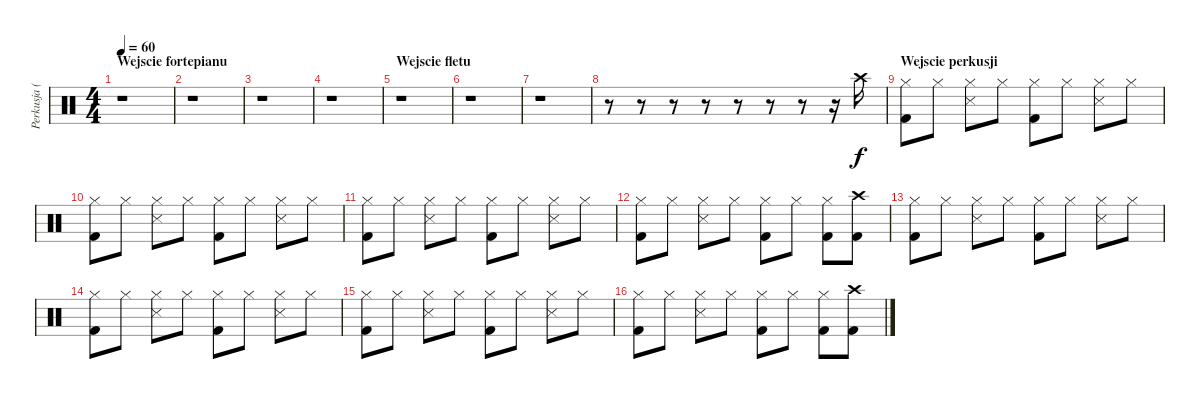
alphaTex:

\track ("Perkusja (Piejo)" "Perkusja (") {instrument percussion}
\staff {score}
\articulation defaults
\ts (4 4)
\section ("" "Wejscie fortepianu")
\tempo 60
\clef neutral
\ks c
r.1{dy f} |
r.1 |
r.1 |
r.1 |
\section ("" "Wejscie fletu")
r.1 |
r.1 |
r.1 |
r.8 r.8 r.8 r.8 r.8 r.8 r.8 r.16 "Crash high (hit)".16 |
\section ("" "Wejscie perkusji")
("Kick (hit) 2" "Hi-Hat (closed)").8 "Hi-Hat (closed)".8 ("Hi-Hat (closed)" "Snare (side stick) 3").8 "Hi-Hat (closed)".8 ("Hi-Hat (closed)" "Kick (hit) 2").8 "Hi-Hat (closed)".8 ("Hi-Hat (closed)" "Snare (side stick) 3").8 "Hi-Hat (closed)".8 |
("Kick (hit) 2" "Hi-Hat (closed)").8 "Hi-Hat (closed)".8 ("Hi-Hat (closed)" "Snare (side stick) 3").8 "Hi-Hat (closed)".8 ("Hi-Hat (closed)" "Kick (hit) 2").8 "Hi-Hat (closed)".8 ("Hi-Hat (closed)" "Snare (side stick) 3").8 "Hi-Hat (closed)".8 |
("Kick (hit) 2" "Hi-Hat (closed)").8 "Hi-Hat (closed)".8 ("Hi-Hat (closed)" "Snare (side stick) 3").8 "Hi-Hat (closed)".8 ("Hi-Hat (closed)" "Kick (hit) 2").8 "Hi-Hat (closed)".8 ("Hi-Hat (closed)" "Snare (side stick) 3").8 "Hi-Hat (closed)".8 |
("Kick (hit) 2" "Hi-Hat (closed)").8 "Hi-Hat (closed)".8 ("Hi-Hat (closed)" "Snare (side stick) 3").8 "Hi-Hat (closed)".8 ("Hi-Hat (closed)" "Kick (hit) 2").8 "Hi-Hat (closed)".8 ("Hi-Hat (closed)" "Kick (hit) 2").8 ("Kick (hit) 2" "Crash high (hit)").8 |
("Kick (hit) 2" "Hi-Hat (closed)").8 "Hi-Hat (closed)".8 ("Hi-Hat (closed)" "Snare (side stick) 3").8 "Hi-Hat (closed)".8 ("Hi-Hat (closed)" "Kick (hit) 2").8 "Hi-Hat (closed)".8 ("Hi-Hat (closed)" "Snare (side stick) 3").8 "Hi-Hat (closed)".8 |
("Kick (hit) 2" "Hi-Hat (closed)").8 "Hi-Hat (closed)".8 ("Hi-Hat (closed)" "Snare (side stick) 3").8 "Hi-Hat (closed)".8 ("Hi-Hat (closed)" "Kick (hit) 2").8 "Hi-Hat (closed)".8 ("Hi-Hat (closed)" "Snare (side stick) 3").8 "Hi-Hat (closed)".8 |
("Kick (hit) 2" "Hi-Hat (closed)").8 "Hi-Hat (closed)".8 ("Hi-Hat (closed)" "Snare (side stick) 3").8 "Hi-Hat (closed)".8 ("Hi-Hat (closed)" "Kick (hit) 2").8 "Hi-Hat (closed)".8 ("Hi-Hat (closed)" "Snare (side stick) 3").8 "Hi-Hat (closed)".8 |
("Kick (hit) 2" "Hi-Hat (closed)").8 "Hi-Hat (closed)".8 ("Hi-Hat (closed)" "Snare (side stick) 3").8 "Hi-Hat (closed)".8 ("Hi-Hat (closed)" "Kick (hit) 2").8 "Hi-Hat (closed)".8 ("Hi-Hat (closed)" "Kick (hit) 2").8 ("Kick (hit) 2" "Crash high (hit)").8
